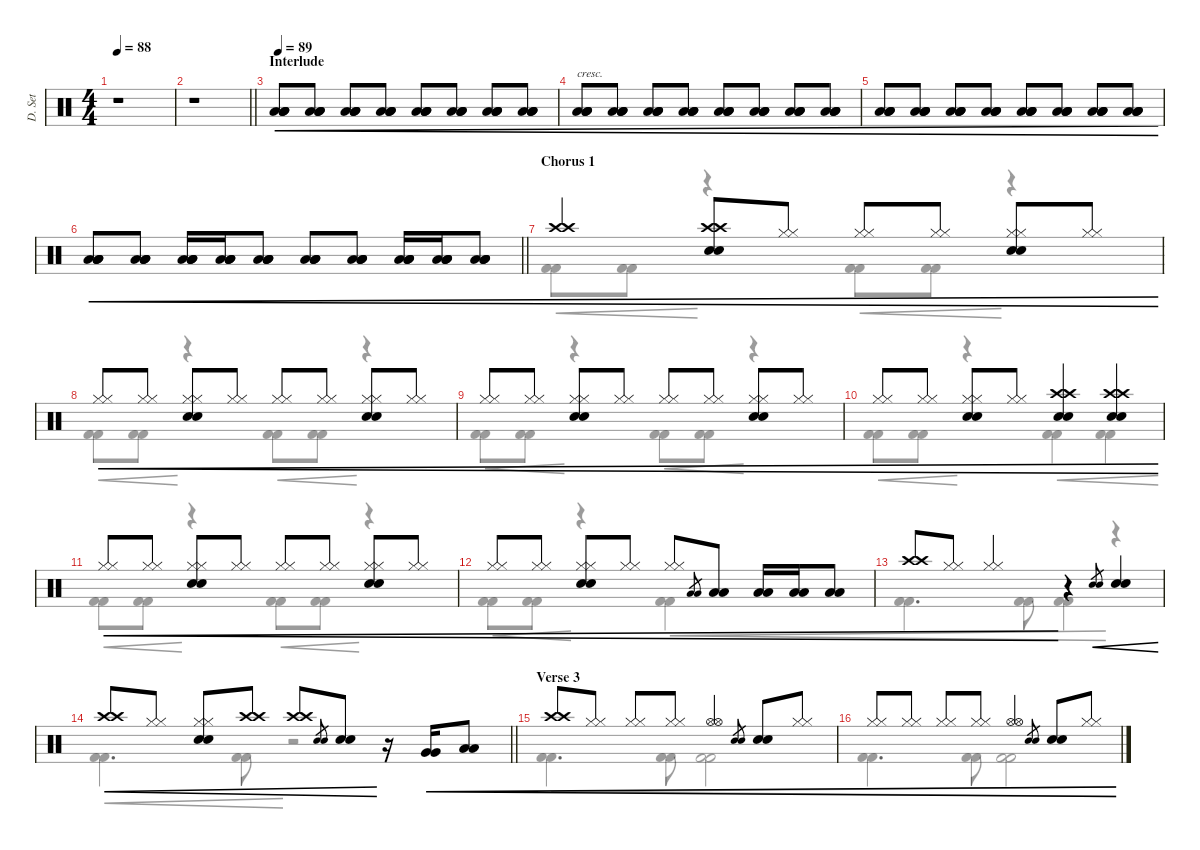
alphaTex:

\defaultSystemsLayout 4
\hideDynamics
\bracketExtendMode groupsimilarinstruments
\otherSystemsTrackNameOrientation horizontal
\track ("Drumset" "D. Set") {instrument percussion}
\staff {score}
\articulation defaults
\voice
\ts (4 4)
\tempo 88
\clef neutral
\ks c
r.1{dy p} |
\barLineRight lightlight
r.1 |
\section ("" "Interlude")
\tempo 89
("Low Floor Tom (hit)" "Low Floor Tom (hit)" "Low Tom (hit)" "Low Tom (hit)").8{cre beam Up} ("Low Floor Tom (hit)" "Low Floor Tom (hit)" "Low Tom (hit)" "Low Tom (hit)").8{cre beam Up} ("Low Floor Tom (hit)" "Low Floor Tom (hit)" "Low Tom (hit)" "Low Tom (hit)").8{cre beam Up} ("Low Floor Tom (hit)" "Low Floor Tom (hit)" "Low Tom (hit)" "Low Tom (hit)").8{cre beam Up} ("Low Floor Tom (hit)" "Low Floor Tom (hit)" "Low Tom (hit)" "Low Tom (hit)").8{cre beam Up} ("Low Floor Tom (hit)" "Low Floor Tom (hit)" "Low Tom (hit)" "Low Tom (hit)").8{cre beam Up} ("Low Floor Tom (hit)" "Low Floor Tom (hit)" "Low Tom (hit)" "Low Tom (hit)").8{cre beam Up} ("Low Floor Tom (hit)" "Low Floor Tom (hit)" "Low Tom (hit)" "Low Tom (hit)").8{cre beam Up} |
("Low Floor Tom (hit)" "Low Floor Tom (hit)" "Low Tom (hit)" "Low Tom (hit)").8{txt "cresc." cre beam Up} ("Low Floor Tom (hit)" "Low Floor Tom (hit)" "Low Tom (hit)" "Low Tom (hit)").8{cre beam Up} ("Low Floor Tom (hit)" "Low Floor Tom (hit)" "Low Tom (hit)" "Low Tom (hit)").8{cre beam Up} ("Low Floor Tom (hit)" "Low Floor Tom (hit)" "Low Tom (hit)" "Low Tom (hit)").8{cre beam Up} ("Low Floor Tom (hit)" "Low Floor Tom (hit)" "Low Tom (hit)" "Low Tom (hit)").8{cre beam Up} ("Low Floor Tom (hit)" "Low Floor Tom (hit)" "Low Tom (hit)" "Low Tom (hit)").8{cre beam Up} ("Low Floor Tom (hit)" "Low Floor Tom (hit)" "Low Tom (hit)" "Low Tom (hit)").8{cre beam Up} ("Low Floor Tom (hit)" "Low Floor Tom (hit)" "Low Tom (hit)" "Low Tom (hit)").8{cre beam Up} |
("Low Floor Tom (hit)" "Low Floor Tom (hit)" "Low Tom (hit)" "Low Tom (hit)").8{cre dy f beam Up} ("Low Floor Tom (hit)" "Low Floor Tom (hit)" "Low Tom (hit)" "Low Tom (hit)").8{cre beam Up} ("Low Floor Tom (hit)" "Low Floor Tom (hit)" "Low Tom (hit)" "Low Tom (hit)").8{cre beam Up} ("Low Floor Tom (hit)" "Low Floor Tom (hit)" "Low Tom (hit)" "Low Tom (hit)").8{cre beam Up} ("Low Floor Tom (hit)" "Low Floor Tom (hit)" "Low Tom (hit)" "Low Tom (hit)").8{cre beam Up} ("Low Floor Tom (hit)" "Low Floor Tom (hit)" "Low Tom (hit)" "Low Tom (hit)").8{cre beam Up} ("Low Floor Tom (hit)" "Low Floor Tom (hit)" "Low Tom (hit)" "Low Tom (hit)").8{cre beam Up} ("Low Floor Tom (hit)" "Low Floor Tom (hit)" "Low Tom (hit)" "Low Tom (hit)").8{cre beam Up} |
\barLineRight lightlight
("Low Floor Tom (hit)" "Low Floor Tom (hit)" "Low Tom (hit)" "Low Tom (hit)").8{cre beam Up} ("Low Floor Tom (hit)" "Low Floor Tom (hit)" "Low Tom (hit)" "Low Tom (hit)").8{cre beam Up} ("Low Floor Tom (hit)" "Low Floor Tom (hit)" "Low Tom (hit)" "Low Tom (hit)").16{cre beam Up} ("Low Floor Tom (hit)" "Low Floor Tom (hit)" "Low Tom (hit)" "Low Tom (hit)").16{cre beam Up} ("Low Floor Tom (hit)" "Low Floor Tom (hit)" "Low Tom (hit)" "Low Tom (hit)").8{cre beam Up} ("Low Floor Tom (hit)" "Low Floor Tom (hit)" "Low Tom (hit)" "Low Tom (hit)").8{cre beam Up} ("Low Floor Tom (hit)" "Low Floor Tom (hit)" "Low Tom (hit)" "Low Tom (hit)").8{cre beam Up} ("Low Floor Tom (hit)" "Low Floor Tom (hit)" "Low Tom (hit)" "Low Tom (hit)").16{cre beam Up} ("Low Floor Tom (hit)" "Low Floor Tom (hit)" "Low Tom (hit)" "Low Tom (hit)").16{cre beam Up} ("Low Floor Tom (hit)" "Low Floor Tom (hit)" "Low Tom (hit)" "Low Tom (hit)").8{cre beam Up} |
\section ("" "Chorus 1")
("Crash high (hit)" "Crash high (hit)").4{cre beam Up} ("Electric Snare (hit)" "Electric Snare (hit)" "Crash high (hit)" "Crash high (hit)").8{cre beam Up} ("Hi-Hat (closed)" "Hi-Hat (closed)").8{cre beam Up} ("Hi-Hat (closed)" "Hi-Hat (closed)").8{cre beam Up} ("Hi-Hat (closed)" "Hi-Hat (closed)").8{cre beam Up} ("Electric Snare (hit)" "Electric Snare (hit)" "Hi-Hat (closed)" "Hi-Hat (closed)").8{cre beam Up} ("Hi-Hat (closed)" "Hi-Hat (closed)").8{cre beam Up} |
("Hi-Hat (closed)" "Hi-Hat (closed)").8{cre beam Up} ("Hi-Hat (closed)" "Hi-Hat (closed)").8{cre beam Up} ("Electric Snare (hit)" "Electric Snare (hit)" "Hi-Hat (closed)" "Hi-Hat (closed)").8{cre beam Up} ("Hi-Hat (closed)" "Hi-Hat (closed)").8{cre beam Up} ("Hi-Hat (closed)" "Hi-Hat (closed)").8{cre beam Up} ("Hi-Hat (closed)" "Hi-Hat (closed)").8{cre beam Up} ("Electric Snare (hit)" "Electric Snare (hit)" "Hi-Hat (closed)" "Hi-Hat (closed)").8{cre beam Up} ("Hi-Hat (closed)" "Hi-Hat (closed)").8{cre beam Up} |
("Hi-Hat (closed)" "Hi-Hat (closed)").8{cre beam Up} ("Hi-Hat (closed)" "Hi-Hat (closed)").8{cre beam Up} ("Electric Snare (hit)" "Electric Snare (hit)" "Hi-Hat (closed)" "Hi-Hat (closed)").8{cre beam Up} ("Hi-Hat (closed)" "Hi-Hat (closed)").8{cre beam Up} ("Hi-Hat (closed)" "Hi-Hat (closed)").8{cre beam Up} ("Hi-Hat (closed)" "Hi-Hat (closed)").8{cre beam Up} ("Electric Snare (hit)" "Electric Snare (hit)" "Hi-Hat (closed)" "Hi-Hat (closed)").8{cre beam Up} ("Hi-Hat (closed)" "Hi-Hat (closed)").8{cre beam Up} |
("Hi-Hat (closed)" "Hi-Hat (closed)").8{cre beam Up} ("Hi-Hat (closed)" "Hi-Hat (closed)").8{cre beam Up} ("Electric Snare (hit)" "Electric Snare (hit)" "Hi-Hat (closed)" "Hi-Hat (closed)").8{cre beam Up} ("Hi-Hat (closed)" "Hi-Hat (closed)").8{cre beam Up} ("Electric Snare (hit)" "Electric Snare (hit)" "Crash high (hit)" "Crash high (hit)").4{cre beam Up} ("Electric Snare (hit)" "Electric Snare (hit)" "Crash high (hit)" "Crash high (hit)").4{cre beam Up} |
("Hi-Hat (closed)" "Hi-Hat (closed)").8{cre beam Up} ("Hi-Hat (closed)" "Hi-Hat (closed)").8{cre beam Up} ("Electric Snare (hit)" "Electric Snare (hit)" "Hi-Hat (closed)" "Hi-Hat (closed)").8{cre beam Up} ("Hi-Hat (closed)" "Hi-Hat (closed)").8{cre beam Up} ("Hi-Hat (closed)" "Hi-Hat (closed)").8{cre beam Up} ("Hi-Hat (closed)" "Hi-Hat (closed)").8{cre beam Up} ("Electric Snare (hit)" "Electric Snare (hit)" "Hi-Hat (closed)" "Hi-Hat (closed)").8{cre beam Up} ("Hi-Hat (closed)" "Hi-Hat (closed)").8{cre beam Up} |
("Hi-Hat (closed)" "Hi-Hat (closed)").8{cre beam Up} ("Hi-Hat (closed)" "Hi-Hat (closed)").8{cre beam Up} ("Electric Snare (hit)" "Electric Snare (hit)" "Hi-Hat (closed)" "Hi-Hat (closed)").8{cre beam Up} ("Hi-Hat (closed)" "Hi-Hat (closed)").8{cre beam Up} ("Hi-Hat (closed)" "Hi-Hat (closed)").8{cre beam Up} ("Low Tom (hit)" "Low Tom (hit)").8{gr cre beam Up} ("Low Tom (hit)" "Low Tom (hit)").8{cre beam Up} ("Low Tom (hit)" "Low Tom (hit)").16{cre beam Up} ("Low Floor Tom (hit)" "Low Floor Tom (hit)").16{cre beam Up} ("Low Floor Tom (hit)" "Low Floor Tom (hit)").8{cre beam Up} |
("Crash high (hit)" "Crash high (hit)").8{cre beam Up} ("Hi-Hat (closed)" "Hi-Hat (closed)").8{cre beam Up} ("Hi-Hat (closed)" "Hi-Hat (closed)").4{cre beam Up} r.4 ("Electric Snare (hit)" "Electric Snare (hit)").8{gr cre beam Up} ("Electric Snare (hit)" "Electric Snare (hit)").4{cre beam Up} |
\barLineRight lightlight
("Crash high (hit)" "Crash high (hit)").8{cre beam Up} ("Hi-Hat (closed)" "Hi-Hat (closed)").8{cre beam Up} ("Electric Snare (hit)" "Electric Snare (hit)" "Hi-Hat (closed)" "Hi-Hat (closed)").8{cre beam Up} ("Crash high (hit)" "Crash high (hit)").8{cre beam Up} ("Crash high (hit)" "Crash high (hit)").8{cre beam Up} ("Electric Snare (hit)" "Electric Snare (hit)").8{gr cre beam Up} ("Electric Snare (hit)" "Electric Snare (hit)").8{cre beam Up} r.16 ("Very Low Tom (hit)" "Very Low Tom (hit)").16{cre beam Up} ("Low Floor Tom (hit)" "Low Floor Tom (hit)").8{cre beam Up} |
\section ("" "Verse 3")
("Crash high (hit)" "Crash high (hit)").8{cre beam Up} ("Hi-Hat (closed)" "Hi-Hat (closed)").8{cre beam Up} ("Hi-Hat (closed)" "Hi-Hat (closed)").8{cre beam Up} ("Hi-Hat (closed)" "Hi-Hat (closed)").8{cre beam Up} ("Hi-Hat (open)" "Hi-Hat (open)").4{cre beam Up} ("Electric Snare (hit)" "Electric Snare (hit)").8{gr cre beam Up} ("Electric Snare (hit)" "Electric Snare (hit)").8{cre beam Up} ("Hi-Hat (closed)" "Hi-Hat (closed)").8{cre beam Up} |
("Hi-Hat (closed)" "Hi-Hat (closed)").8{cre beam Up} ("Hi-Hat (closed)" "Hi-Hat (closed)").8{cre beam Up} ("Hi-Hat (closed)" "Hi-Hat (closed)").8{cre beam Up} ("Hi-Hat (closed)" "Hi-Hat (closed)").8{cre beam Up} ("Hi-Hat (open)" "Hi-Hat (open)").4{cre beam Up} ("Electric Snare (hit)" "Electric Snare (hit)").8{gr cre beam Up} ("Electric Snare (hit)" "Electric Snare (hit)").8{cre beam Up} ("Hi-Hat (closed)" "Hi-Hat (closed)").8{cre beam Up}
\voice
\clef neutral
\ottava regular
\simile none
\ks c
|
\barLineRight lightlight
|
|
|
|
\barLineRight lightlight
|
("Kick (hit) 2" "Kick (hit) 2").8{cre beam Down} ("Kick (hit) 2" "Kick (hit) 2").8{cre beam Down} r.4 ("Kick (hit) 2" "Kick (hit) 2").8{cre beam Down} ("Kick (hit) 2" "Kick (hit) 2").8{cre beam Down} r.4 |
("Kick (hit) 2" "Kick (hit) 2").8{cre beam Down} ("Kick (hit) 2" "Kick (hit) 2").8{cre beam Down} r.4 ("Kick (hit) 2" "Kick (hit) 2").8{cre beam Down} ("Kick (hit) 2" "Kick (hit) 2").8{cre beam Down} r.4 |
("Kick (hit) 2" "Kick (hit) 2").8{cre beam Down} ("Kick (hit) 2" "Kick (hit) 2").8{cre beam Down} r.4 ("Kick (hit) 2" "Kick (hit) 2").8{cre beam Down} ("Kick (hit) 2" "Kick (hit) 2").8{cre beam Down} r.4 |
("Kick (hit) 2" "Kick (hit) 2").8{cre beam Down} ("Kick (hit) 2" "Kick (hit) 2").8{cre beam Down} r.4 ("Kick (hit) 2" "Kick (hit) 2").4{cre beam Down} ("Kick (hit) 2" "Kick (hit) 2").4{cre beam Down} |
("Kick (hit) 2" "Kick (hit) 2").8{cre beam Down} ("Kick (hit) 2" "Kick (hit) 2").8{cre beam Down} r.4 ("Kick (hit) 2" "Kick (hit) 2").8{cre beam Down} ("Kick (hit) 2" "Kick (hit) 2").8{cre beam Down} r.4 |
("Kick (hit) 2" "Kick (hit) 2").8{cre beam Down} ("Kick (hit) 2" "Kick (hit) 2").8{cre beam Down} r.4 ("Kick (hit) 2" "Kick (hit) 2").4{cre beam Down} |
("Kick (hit) 2" "Kick (hit) 2").4{d cre beam Down} ("Kick (hit) 2" "Kick (hit) 2").8{cre beam Down} ("Kick (hit) 2" "Kick (hit) 2").4{cre beam Down} r.4 |
\barLineRight lightlight
("Kick (hit) 2" "Kick (hit) 2").4{d cre beam Down} ("Kick (hit) 2" "Kick (hit) 2").8{cre beam Down} r.2 |
("Kick (hit) 2" "Kick (hit) 2").4{d cre beam Down} ("Kick (hit) 2" "Kick (hit) 2").8{cre beam Down} ("Kick (hit) 2" "Kick (hit) 2").2{cre beam Down} |
("Kick (hit) 2" "Kick (hit) 2").4{d cre beam Down} ("Kick (hit) 2" "Kick (hit) 2").8{cre beam Down} ("Kick (hit) 2" "Kick (hit) 2").2{cre beam Down}
